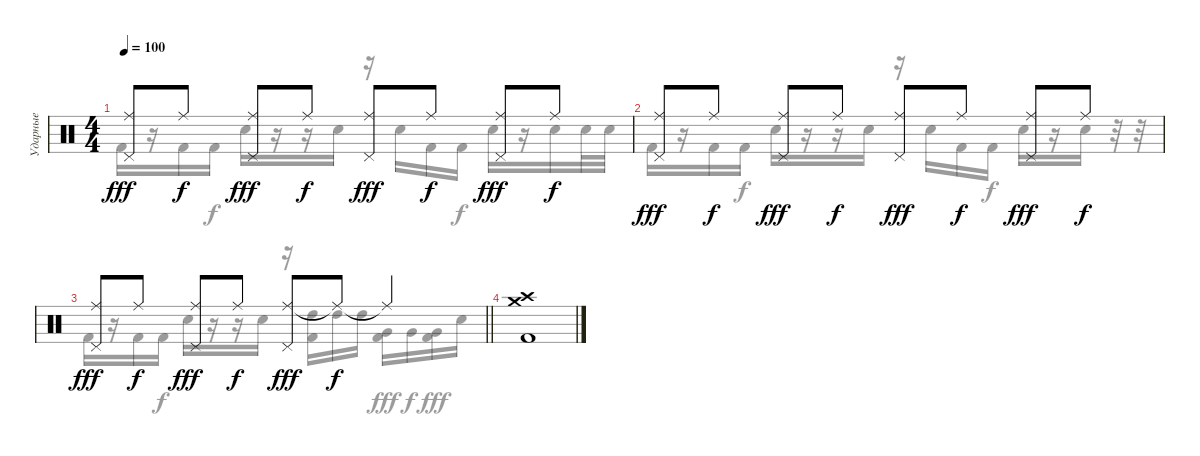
\track ("Ударные" "Ударные") {instrument percussion}
\staff {score}
\articulation defaults
\voice
\ts (4 4)
\tempo 100
\clef neutral
\ks c
("Ride (middle)" "Pedal Hi-Hat (hit)").8{dy fff} "Ride (middle)".8{dy f} ("Ride (middle)" "Pedal Hi-Hat (hit)").8{dy fff} "Ride (middle)".8{dy f} ("Ride (middle)" "Pedal Hi-Hat (hit)").8{dy fff} "Ride (middle)".8{dy f} ("Ride (middle)" "Pedal Hi-Hat (hit)").8{dy fff} "Ride (middle)".8{dy f} |
("Ride (middle)" "Pedal Hi-Hat (hit)").8{dy fff} "Ride (middle)".8{dy f} ("Ride (middle)" "Pedal Hi-Hat (hit)").8{dy fff} "Ride (middle)".8{dy f} ("Ride (middle)" "Pedal Hi-Hat (hit)").8{dy fff} "Ride (middle)".8{dy f} ("Ride (middle)" "Pedal Hi-Hat (hit)").8{dy fff} "Ride (middle)".8{dy f} |
\barLineRight lightlight
("Ride (middle)" "Pedal Hi-Hat (hit)").8{dy fff} "Ride (middle)".8{dy f} ("Ride (middle)" "Pedal Hi-Hat (hit)").8{dy fff} "Ride (middle)".8{dy f} ("Ride (middle)" "Pedal Hi-Hat (hit)").8{dy fff} "Ride (middle)"{t}.8{dy f} "Ride (middle)"{t}.4 |
("Crash high (hit)" "Crash medium (hit)" "Kick (hit) 2").1
\voice
\clef neutral
\ottava regular
\simile none
\ks c "Kick (hit) 2".16{dy fff}
r.16 "Kick (hit) 2".16 "Kick (hit) 2".16{dy f} "Snare (hit) 2".16{dy fff} r.16 r.16 "Snare (hit) 2".16 r.16 "Snare (hit) 2".16 "Kick (hit) 2".16 "Kick (hit) 2".16{dy f} "Snare (hit) 2".16{dy fff} r.16 "Snare (hit) 2".16 "Snare (hit) 2".32 "Snare (hit) 2".32 |
"Kick (hit) 2".16 r.16 "Kick (hit) 2".16 "Kick (hit) 2".16{dy f} "Snare (hit) 2".16{dy fff} r.16 r.16 "Snare (hit) 2".16 r.16 "Snare (hit) 2".16 "Kick (hit) 2".16 "Kick (hit) 2".16{dy f} "Snare (hit) 2".16{dy fff} r.16 "Snare (hit) 2".16 r.32 r.32 |
\barLineRight lightlight "Kick (hit) 2".16
r.16 "Kick (hit) 2".16 "Kick (hit) 2".16{dy f} "Snare (hit) 2".16{dy fff} r.16 r.16 "Snare (hit) 2".16 r.16 ("High Tom (hit)" "Kick (hit) 2").16 "High Tom (hit)".16{dy f} "High Tom (hit)".16 ("Very Low Tom (hit)" "Kick (hit) 2").16{dy fff} "Very Low Tom (hit)".16{dy f} ("Very Low Tom (hit)" "Kick (hit) 2").16{dy fff} "Snare (hit) 2".16 |
